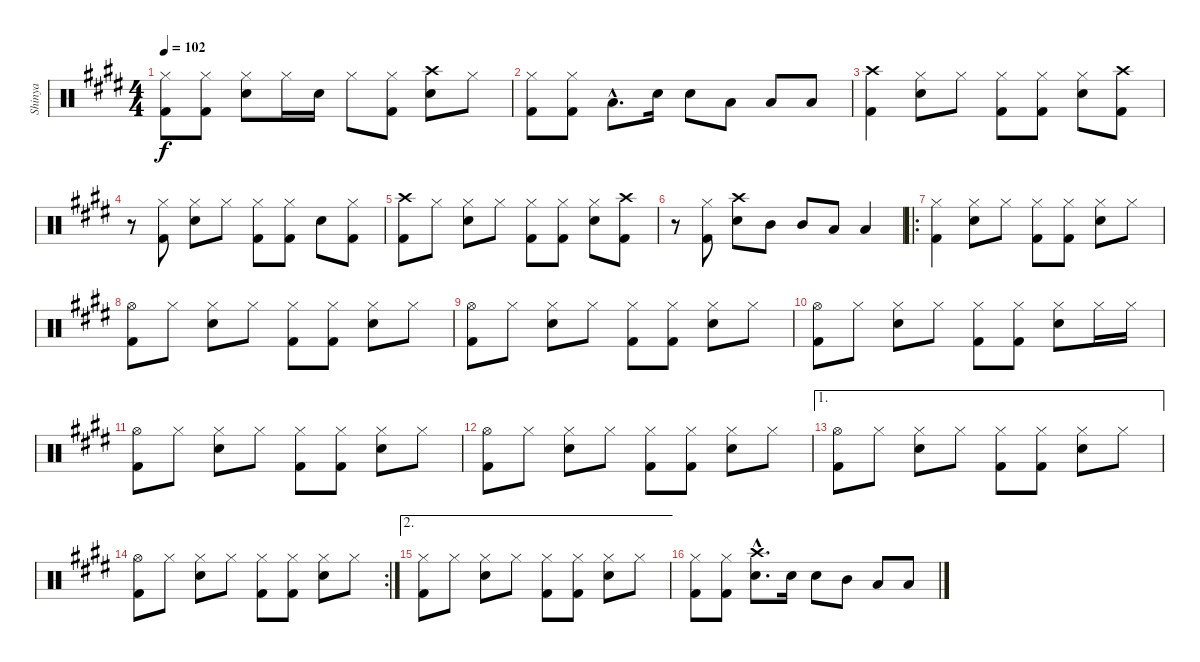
\track ("Shinya" "Shinya") {instrument percussion}
\staff {score}
\articulation defaults
\ts (4 4)
\tempo 102
\clef neutral
\ks e
("Hi-Hat (closed)" "Kick (hit) 2").8{dy f} ("Hi-Hat (closed)" "Kick (hit) 2").8 ("Hi-Hat (closed)" "Snare (hit) 2").8 "Hi-Hat (closed)".16 "Snare (hit) 2".16 "Hi-Hat (closed)".8 ("Hi-Hat (closed)" "Kick (hit) 2").8 ("Crash high (hit)" "Snare (hit) 2").8 "Hi-Hat (closed)".8 |
("Hi-Hat (closed)" "Kick (hit) 2").8 ("Hi-Hat (closed)" "Kick (hit) 2").8 "Low Floor Tom (hit)"{hac}.8{d} "Snare (hit) 2".16 "Snare (hit) 2".8 "Low Tom (hit)".8 "Low Tom (hit)".8 "Low Floor Tom (hit)".8 |
("Crash high (hit)" "Kick (hit) 2").4 ("Hi-Hat (closed)" "Snare (hit) 2").8 "Hi-Hat (closed)".8 ("Hi-Hat (closed)" "Kick (hit) 2").8 ("Hi-Hat (closed)" "Kick (hit) 2").8 ("Hi-Hat (closed)" "Snare (hit) 2").8 ("Crash high (hit)" "Kick (hit) 2").8 |
r.8 ("Hi-Hat (closed)" "Kick (hit) 2").8 ("Hi-Hat (closed)" "Snare (hit) 2").8 "Hi-Hat (closed)".8 ("Hi-Hat (closed)" "Kick (hit) 2").8 ("Hi-Hat (closed)" "Kick (hit) 2").8 "Snare (hit) 2".8 ("Hi-Hat (closed)" "Kick (hit) 2").8 |
("Crash high (hit)" "Kick (hit) 2").8 "Hi-Hat (closed)".8 ("Hi-Hat (closed)" "Snare (hit) 2").8 "Hi-Hat (closed)".8 ("Hi-Hat (closed)" "Kick (hit) 2").8 ("Hi-Hat (closed)" "Kick (hit) 2").8 ("Hi-Hat (closed)" "Snare (hit) 2").8 ("Crash high (hit)" "Kick (hit) 2").8 |
r.8 ("Hi-Hat (closed)" "Kick (hit) 2").8 ("Crash high (hit)" "Snare (hit) 2").8 "Mid Tom (hit)".8 "Mid Tom (hit)".8 "Low Tom (hit)".8 "Low Tom (hit)".4 |
\ro
("Hi-Hat (closed)" "Kick (hit) 2").4 ("Hi-Hat (closed)" "Snare (hit) 2").8 "Hi-Hat (closed)".8 ("Hi-Hat (closed)" "Kick (hit) 2").8 ("Hi-Hat (closed)" "Kick (hit) 2").8 ("Hi-Hat (closed)" "Snare (hit) 2").8 "Hi-Hat (closed)".8 |
("Hi-Hat (open)" "Kick (hit) 2").8 "Hi-Hat (closed)".8 ("Hi-Hat (closed)" "Snare (hit) 2").8 "Hi-Hat (closed)".8 ("Hi-Hat (closed)" "Kick (hit) 2").8 ("Hi-Hat (closed)" "Kick (hit) 2").8 ("Hi-Hat (closed)" "Snare (hit) 2").8 "Hi-Hat (closed)".8 |
("Hi-Hat (open)" "Kick (hit) 2").8 "Hi-Hat (closed)".8 ("Hi-Hat (closed)" "Snare (hit) 2").8 "Hi-Hat (closed)".8 ("Hi-Hat (closed)" "Kick (hit) 2").8 ("Hi-Hat (closed)" "Kick (hit) 2").8 ("Hi-Hat (closed)" "Snare (hit) 2").8 "Hi-Hat (closed)".8 |
("Hi-Hat (open)" "Kick (hit) 2").8 "Hi-Hat (closed)".8 ("Hi-Hat (closed)" "Snare (hit) 2").8 "Hi-Hat (closed)".8 ("Hi-Hat (closed)" "Kick (hit) 2").8 ("Hi-Hat (closed)" "Kick (hit) 2").8 ("Hi-Hat (closed)" "Snare (hit) 2").8 "Hi-Hat (closed)".16 "Hi-Hat (closed)".16 |
("Hi-Hat (open)" "Kick (hit) 2").8 "Hi-Hat (closed)".8 ("Hi-Hat (closed)" "Snare (hit) 2").8 "Hi-Hat (closed)".8 ("Hi-Hat (closed)" "Kick (hit) 2").8 ("Hi-Hat (closed)" "Kick (hit) 2").8 ("Hi-Hat (closed)" "Snare (hit) 2").8 "Hi-Hat (closed)".8 |
("Hi-Hat (open)" "Kick (hit) 2").8 "Hi-Hat (closed)".8 ("Hi-Hat (closed)" "Snare (hit) 2").8 "Hi-Hat (closed)".8 ("Hi-Hat (closed)" "Kick (hit) 2").8 ("Hi-Hat (closed)" "Kick (hit) 2").8 ("Hi-Hat (closed)" "Snare (hit) 2").8 "Hi-Hat (closed)".8 |
\ae 1
("Hi-Hat (open)" "Kick (hit) 2").8 "Hi-Hat (closed)".8 ("Hi-Hat (closed)" "Snare (hit) 2").8 "Hi-Hat (closed)".8 ("Hi-Hat (closed)" "Kick (hit) 2").8 ("Hi-Hat (closed)" "Kick (hit) 2").8 ("Hi-Hat (closed)" "Snare (hit) 2").8 "Hi-Hat (closed)".8 |
\rc 2
("Hi-Hat (open)" "Kick (hit) 2").8 "Hi-Hat (closed)".8 ("Hi-Hat (closed)" "Snare (hit) 2").8 "Hi-Hat (closed)".8 ("Hi-Hat (closed)" "Kick (hit) 2").8 ("Hi-Hat (closed)" "Kick (hit) 2").8 ("Hi-Hat (closed)" "Snare (hit) 2").8 "Hi-Hat (closed)".8 |
\ae 2
("Hi-Hat (closed)" "Kick (hit) 2").8 "Hi-Hat (closed)".8 ("Hi-Hat (closed)" "Snare (hit) 2").8 "Hi-Hat (closed)".8 ("Hi-Hat (closed)" "Kick (hit) 2").8 ("Hi-Hat (closed)" "Kick (hit) 2").8 ("Hi-Hat (closed)" "Snare (hit) 2").8 "Hi-Hat (closed)".8 |
("Hi-Hat (closed)" "Kick (hit) 2").8 ("Hi-Hat (closed)" "Kick (hit) 2").8 ("Crash high (hit)"{hac} "Snare (hit) 2"{hac}).8{d} "Snare (hit) 2".16 "Snare (hit) 2".8 "Mid Tom (hit)".8 "Low Tom (hit)".8 "Low Tom (hit)".8
